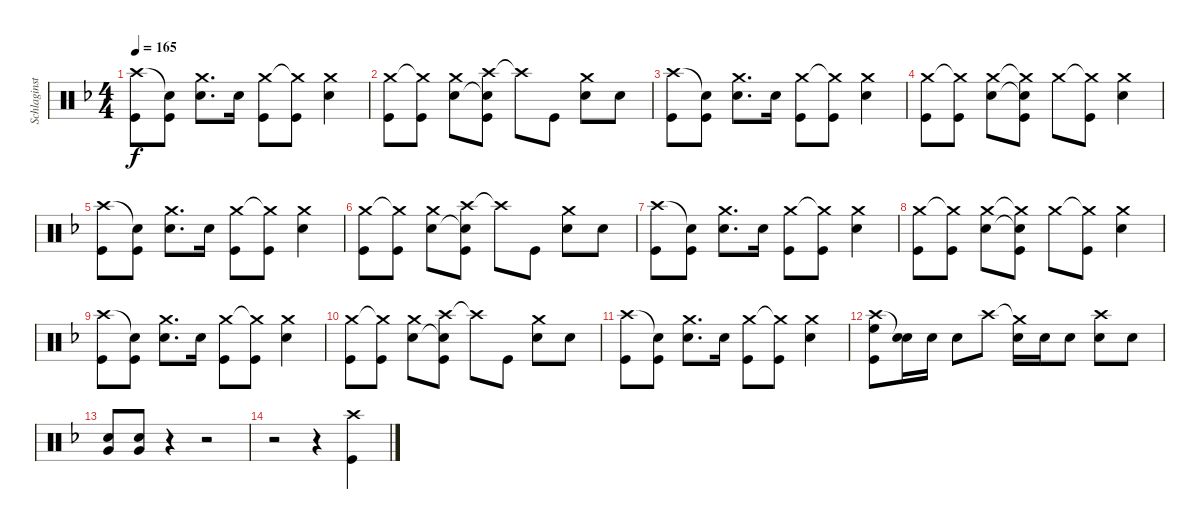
\track ("Schlaginstrumente - Auswahl" "Schlaginst") {instrument percussion}
\staff {score}
\articulation defaults
\ts (4 4)
\tempo 165
\clef neutral
\ks f
("Crash high (hit)" "Kick (hit)").8{dy f} ("Snare (hit)"{t} "Kick (hit)").8 ("Crash medium (hit)" "Snare (hit) 2").8{d} "Snare (hit) 2".16 ("Crash medium (hit)" "Kick (hit)").8 ("Crash medium (hit)"{t} "Kick (hit)").8 ("Crash medium (hit)" "Snare (hit) 2").4 |
("Crash medium (hit)" "Kick (hit)").8 ("Crash medium (hit)"{t} "Kick (hit)").8 ("Crash medium (hit)" "Snare (hit) 2").8 ("Crash high (hit)" "Snare (hit) 2"{t} "Kick (hit)").8 "Crash high (hit)"{t}.8 "Kick (hit)".8 ("Crash medium (hit)" "Snare (hit) 2").8 "Snare (hit) 2".8 |
("Crash high (hit)" "Kick (hit)").8 ("Snare (hit)"{t} "Kick (hit)").8 ("Crash medium (hit)" "Snare (hit) 2").8{d} "Snare (hit) 2".16 ("Crash medium (hit)" "Kick (hit)").8 ("Crash medium (hit)"{t} "Kick (hit)").8 ("Crash medium (hit)" "Snare (hit) 2").4 |
("Crash medium (hit)" "Kick (hit)").8 ("Crash medium (hit)"{t} "Kick (hit)").8 ("Crash medium (hit)" "Snare (hit) 2").8 ("Crash medium (hit)"{t} "Snare (hit) 2"{t} "Kick (hit)").8 "Crash medium (hit)".8 ("Crash medium (hit)"{t} "Kick (hit)").8 ("Crash medium (hit)" "Snare (hit) 2").4 |
("Crash high (hit)" "Kick (hit)").8 ("Snare (hit)"{t} "Kick (hit)").8 ("Crash medium (hit)" "Snare (hit) 2").8{d} "Snare (hit) 2".16 ("Crash medium (hit)" "Kick (hit)").8 ("Crash medium (hit)"{t} "Kick (hit)").8 ("Crash medium (hit)" "Snare (hit) 2").4 |
("Crash medium (hit)" "Kick (hit)").8 ("Crash medium (hit)"{t} "Kick (hit)").8 ("Crash medium (hit)" "Snare (hit) 2").8 ("Crash high (hit)" "Snare (hit) 2"{t} "Kick (hit)").8 "Crash high (hit)"{t}.8 "Kick (hit)".8 ("Crash medium (hit)" "Snare (hit) 2").8 "Snare (hit) 2".8 |
("Crash high (hit)" "Kick (hit)").8 ("Snare (hit)"{t} "Kick (hit)").8 ("Crash medium (hit)" "Snare (hit) 2").8{d} "Snare (hit) 2".16 ("Crash medium (hit)" "Kick (hit)").8 ("Crash medium (hit)"{t} "Kick (hit)").8 ("Crash medium (hit)" "Snare (hit) 2").4 |
("Crash medium (hit)" "Kick (hit)").8 ("Crash medium (hit)"{t} "Kick (hit)").8 ("Crash medium (hit)" "Snare (hit) 2").8 ("Crash medium (hit)"{t} "Snare (hit) 2"{t} "Kick (hit)").8 "Crash medium (hit)".8 ("Crash medium (hit)"{t} "Kick (hit)").8 ("Crash medium (hit)" "Snare (hit) 2").4 |
("Crash high (hit)" "Kick (hit)").8 ("Snare (hit)"{t} "Kick (hit)").8 ("Crash medium (hit)" "Snare (hit) 2").8{d} "Snare (hit) 2".16 ("Crash medium (hit)" "Kick (hit)").8 ("Crash medium (hit)"{t} "Kick (hit)").8 ("Crash medium (hit)" "Snare (hit) 2").4 |
("Crash medium (hit)" "Kick (hit)").8 ("Crash medium (hit)"{t} "Kick (hit)").8 ("Crash medium (hit)" "Snare (hit) 2").8 ("Crash high (hit)" "Snare (hit) 2"{t} "Kick (hit)").8 "Crash high (hit)"{t}.8 "Kick (hit)".8 ("Crash medium (hit)" "Snare (hit) 2").8 "Snare (hit) 2".8 |
("Crash high (hit)" "Kick (hit)").8 ("Snare (hit)"{t} "Kick (hit)").8 ("Crash medium (hit)" "Snare (hit) 2").8{d} "Snare (hit) 2".16 ("Crash medium (hit)" "Kick (hit)").8 ("Crash medium (hit)"{t} "Kick (hit)").8 ("Crash medium (hit)" "Snare (hit) 2").4 |
("Crash high (hit)" "High Floor Tom (hit)" "Kick (hit)").8 ("Snare (hit)"{t} "Snare (hit) 2").16 "Snare (hit) 2".16 "Snare (hit) 2".8 "Crash high (hit)".8 ("Crash medium (hit)"{t} "Snare (hit) 2").16 "Snare (hit) 2".16 "Snare (hit) 2".8 ("Crash high (hit)" "Snare (hit) 2").8 "Snare (hit) 2".8 |
("Very Low Tom (hit)" "Snare (hit) 2").8 ("Very Low Tom (hit)" "Snare (hit) 2").8 r.4 r.2 |
r.2 r.4 ("Crash high (hit)" "Kick (hit)").4
